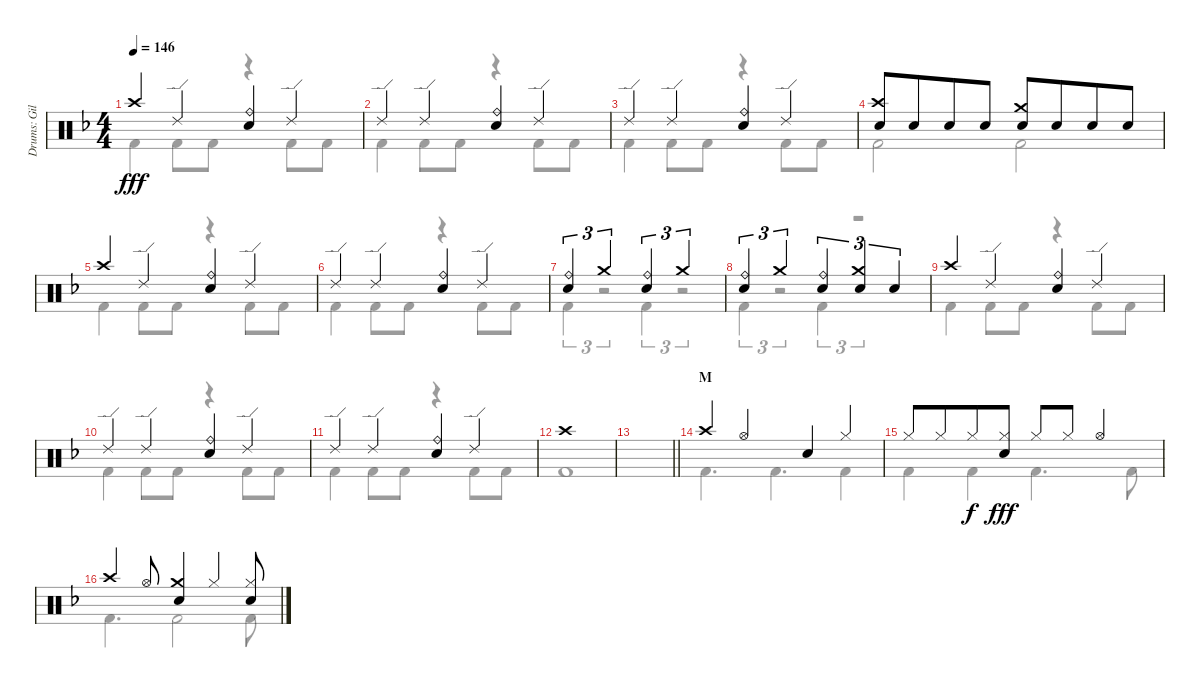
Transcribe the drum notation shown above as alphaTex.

\track ("Drums: Gil" "Drums: Gil") {instrument percussion}
\staff {score}
\articulation defaults
\voice
\ts (4 4)
\tempo 146
\clef neutral
\ks f "Crash high (hit)".4{dy fff} "Ride (edge) 2".4
("Ride (bell)" "Snare (hit) 2").4 "Ride (edge) 2".4 |
"Ride (edge) 2".4 "Ride (edge) 2".4 ("Ride (bell)" "Snare (hit) 2").4 "Ride (edge) 2".4 |
"Ride (edge) 2".4 "Ride (edge) 2".4 ("Ride (bell)" "Snare (hit) 2").4 "Ride (edge) 2".4 |
("Crash high (hit)" "Snare (hit) 2").8 "Snare (hit) 2".8{beam merge} "Snare (hit) 2".8 "Snare (hit) 2".8 ("Crash medium (hit)" "Snare (hit) 2").8 "Snare (hit) 2".8{beam merge} "Snare (hit) 2".8 "Snare (hit) 2".8 |
"Crash high (hit)".4 "Ride (edge) 2".4 ("Ride (bell)" "Snare (hit) 2").4 "Ride (edge) 2".4 |
"Ride (edge) 2".4 "Ride (edge) 2".4 ("Ride (bell)" "Snare (hit) 2").4 "Ride (edge) 2".4 |
("Ride (bell)" "Snare (hit) 2").4{tu (3 2)} "Crash medium (hit)".2{tu (3 2)} ("Ride (bell)" "Snare (hit) 2").4{tu (3 2)} "Crash medium (hit)".2{tu (3 2)} |
("Ride (bell)" "Snare (hit) 2").4{tu (3 2)} "Crash medium (hit)".2{tu (3 2)} ("Ride (bell)" "Snare (hit) 2").4{tu (3 2)} ("Crash medium (hit)" "Snare (hit) 2").4{tu (3 2)} "Snare (hit) 2".4{tu (3 2)} |
"Crash high (hit)".4 "Ride (edge) 2".4 ("Ride (bell)" "Snare (hit) 2").4 "Ride (edge) 2".4 |
"Ride (edge) 2".4 "Ride (edge) 2".4 ("Ride (bell)" "Snare (hit) 2").4 "Ride (edge) 2".4 |
"Ride (edge) 2".4 "Ride (edge) 2".4 ("Ride (bell)" "Snare (hit) 2").4 "Ride (edge) 2".4 |
"Crash high (hit)".1 |
\barLineRight lightlight
|
\section ("" "M")
"Crash high (hit)".4 "Hi-Hat (open)".4 "Snare (hit) 2".4 "Hi-Hat (closed)".4 |
"Hi-Hat (closed)".8 "Hi-Hat (closed)".8{beam merge} "Hi-Hat (closed)".8{dy f} ("Hi-Hat (closed)" "Snare (hit) 2").8{dy fff} "Hi-Hat (closed)".8 "Hi-Hat (closed)".8 "Hi-Hat (open)".4 |
"Crash high (hit)".4 "Hi-Hat (open)".8 ("Crash medium (hit)" "Snare (hit) 2").4 "Hi-Hat (closed)".4 ("Hi-Hat (closed)" "Snare (hit) 2").8
\voice
\clef neutral
\ottava regular
\simile none
\ks f "Kick (hit) 2".4{dy fff} "Kick (hit) 2".8 "Kick (hit) 2".8
r.4 "Kick (hit) 2".8 "Kick (hit) 2".8 |
"Kick (hit) 2".4 "Kick (hit) 2".8 "Kick (hit) 2".8 r.4 "Kick (hit) 2".8 "Kick (hit) 2".8 |
"Kick (hit) 2".4 "Kick (hit) 2".8 "Kick (hit) 2".8 r.4 "Kick (hit) 2".8 "Kick (hit) 2".8 |
"Kick (hit) 2".2 "Kick (hit) 2".2 |
"Kick (hit) 2".4 "Kick (hit) 2".8 "Kick (hit) 2".8 r.4 "Kick (hit) 2".8 "Kick (hit) 2".8 |
"Kick (hit) 2".4 "Kick (hit) 2".8 "Kick (hit) 2".8 r.4 "Kick (hit) 2".8 "Kick (hit) 2".8 |
"Kick (hit) 2".4{tu (3 2)} r.2{tu (3 2)} "Kick (hit) 2".4{tu (3 2)} r.2{tu (3 2)} |
"Kick (hit) 2".4{tu (3 2)} r.2{tu (3 2)} "Kick (hit) 2".4{tu (3 2)} r.2{tu (3 2)} |
"Kick (hit) 2".4 "Kick (hit) 2".8 "Kick (hit) 2".8 r.4 "Kick (hit) 2".8 "Kick (hit) 2".8 |
"Kick (hit) 2".4 "Kick (hit) 2".8 "Kick (hit) 2".8 r.4 "Kick (hit) 2".8 "Kick (hit) 2".8 |
"Kick (hit) 2".4 "Kick (hit) 2".8 "Kick (hit) 2".8 r.4 "Kick (hit) 2".8 "Kick (hit) 2".8 |
"Kick (hit) 2".1 |
\barLineRight lightlight
|
"Kick (hit) 2".4{d} "Kick (hit) 2".4{d} "Kick (hit) 2".4 |
"Kick (hit) 2".4 "Kick (hit) 2".4 "Kick (hit) 2".4{d} "Kick (hit) 2".8 |
"Kick (hit) 2".4{d} "Kick (hit) 2".2 "Kick (hit) 2".8
